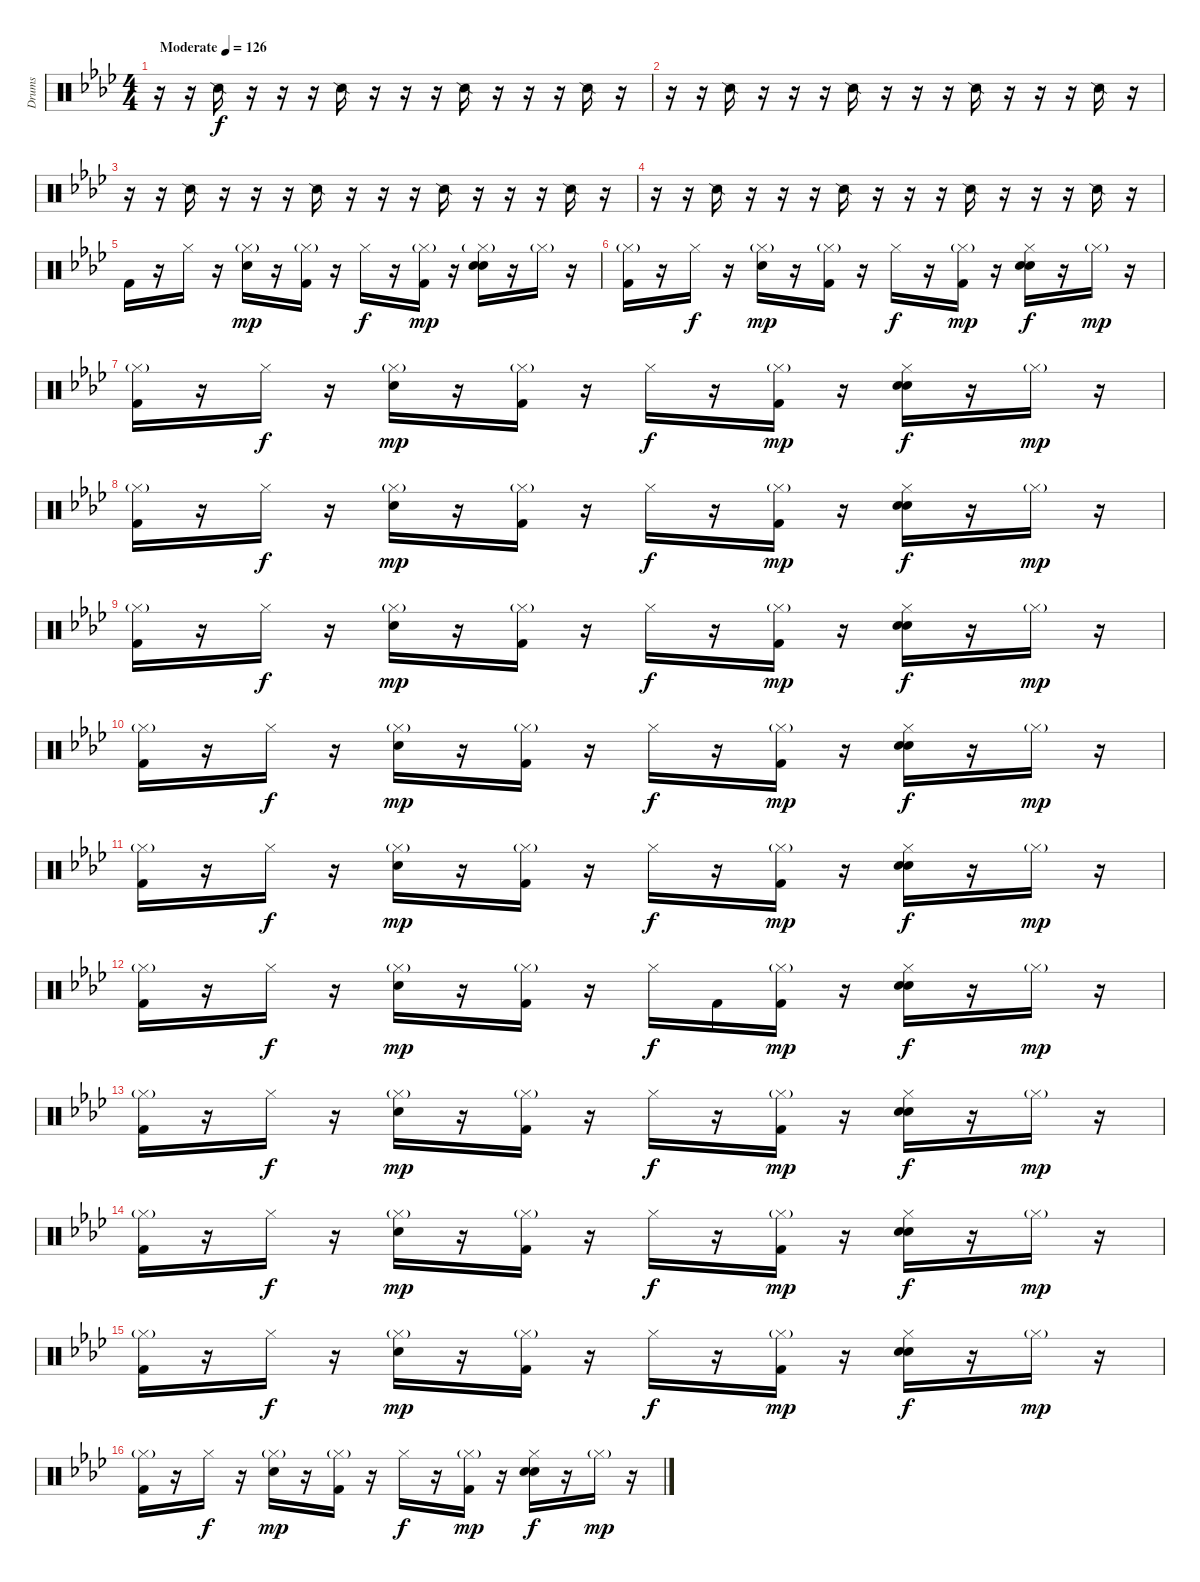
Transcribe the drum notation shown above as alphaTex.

\track ("Drums" "Drums") {instrument percussion}
\staff {score}
\articulation defaults
\ts (4 4)
\tempo (126 "Moderate")
\clef neutral
\ks ab
r.16{dy f} r.16 "Snare (side stick) 2".16 r.16 r.16 r.16 "Snare (side stick) 2".16 r.16 r.16 r.16 "Snare (side stick) 2".16 r.16 r.16 r.16 "Snare (side stick) 2".16 r.16 |
r.16 r.16 "Snare (side stick) 2".16 r.16 r.16 r.16 "Snare (side stick) 2".16 r.16 r.16 r.16 "Snare (side stick) 2".16 r.16 r.16 r.16 "Snare (side stick) 2".16 r.16 |
r.16 r.16 "Snare (side stick) 2".16 r.16 r.16 r.16 "Snare (side stick) 2".16 r.16 r.16 r.16 "Snare (side stick) 2".16 r.16 r.16 r.16 "Snare (side stick) 2".16 r.16 |
r.16 r.16 "Snare (side stick) 2".16 r.16 r.16 r.16 "Snare (side stick) 2".16 r.16 r.16 r.16 "Snare (side stick) 2".16 r.16 r.16 r.16 "Snare (side stick) 2".16 r.16 |
"Kick (hit) 2".16 r.16 "Hi-Hat (closed)".16 r.16 ("Hi-Hat (closed)"{g} "Snare (hit) 2").16{dy mp} r.16 ("Hi-Hat (closed)"{g} "Kick (hit) 2").16 r.16 "Hi-Hat (closed)".16{dy f} r.16 ("Hi-Hat (closed)"{g} "Kick (hit) 2").16{dy mp} r.16 ("Hi-Hat (closed)"{g} "Hand Clap (hit)" "Snare (hit) 2").16 r.16 "Hi-Hat (closed)"{g}.16 r.16 |
("Hi-Hat (closed)"{g} "Kick (hit) 2").16 r.16 "Hi-Hat (closed)".16{dy f} r.16 ("Hi-Hat (closed)"{g} "Snare (hit) 2").16{dy mp} r.16 ("Hi-Hat (closed)"{g} "Kick (hit) 2").16 r.16 "Hi-Hat (closed)".16{dy f} r.16 ("Hi-Hat (closed)"{g} "Kick (hit) 2").16{dy mp} r.16 ("Hi-Hat (closed)" "Hand Clap (hit)" "Snare (hit) 2").16{dy f} r.16 "Hi-Hat (closed)"{g}.16{dy mp} r.16 |
("Hi-Hat (closed)"{g} "Kick (hit) 2").16 r.16 "Hi-Hat (closed)".16{dy f} r.16 ("Hi-Hat (closed)"{g} "Snare (hit) 2").16{dy mp} r.16 ("Hi-Hat (closed)"{g} "Kick (hit) 2").16 r.16 "Hi-Hat (closed)".16{dy f} r.16 ("Hi-Hat (closed)"{g} "Kick (hit) 2").16{dy mp} r.16 ("Hi-Hat (closed)" "Hand Clap (hit)" "Snare (hit) 2").16{dy f} r.16 "Hi-Hat (closed)"{g}.16{dy mp} r.16 |
("Hi-Hat (closed)"{g} "Kick (hit) 2").16 r.16 "Hi-Hat (closed)".16{dy f} r.16 ("Hi-Hat (closed)"{g} "Snare (hit) 2").16{dy mp} r.16 ("Hi-Hat (closed)"{g} "Kick (hit) 2").16 r.16 "Hi-Hat (closed)".16{dy f} r.16 ("Hi-Hat (closed)"{g} "Kick (hit) 2").16{dy mp} r.16 ("Hi-Hat (closed)" "Hand Clap (hit)" "Snare (hit) 2").16{dy f} r.16 "Hi-Hat (closed)"{g}.16{dy mp} r.16 |
("Hi-Hat (closed)"{g} "Kick (hit) 2").16 r.16 "Hi-Hat (closed)".16{dy f} r.16 ("Hi-Hat (closed)"{g} "Snare (hit) 2").16{dy mp} r.16 ("Hi-Hat (closed)"{g} "Kick (hit) 2").16 r.16 "Hi-Hat (closed)".16{dy f} r.16 ("Hi-Hat (closed)"{g} "Kick (hit) 2").16{dy mp} r.16 ("Hi-Hat (closed)" "Hand Clap (hit)" "Snare (hit) 2").16{dy f} r.16 "Hi-Hat (closed)"{g}.16{dy mp} r.16 |
("Hi-Hat (closed)"{g} "Kick (hit) 2").16 r.16 "Hi-Hat (closed)".16{dy f} r.16 ("Hi-Hat (closed)"{g} "Snare (hit) 2").16{dy mp} r.16 ("Hi-Hat (closed)"{g} "Kick (hit) 2").16 r.16 "Hi-Hat (closed)".16{dy f} r.16 ("Hi-Hat (closed)"{g} "Kick (hit) 2").16{dy mp} r.16 ("Hi-Hat (closed)" "Hand Clap (hit)" "Snare (hit) 2").16{dy f} r.16 "Hi-Hat (closed)"{g}.16{dy mp} r.16 |
("Hi-Hat (closed)"{g} "Kick (hit) 2").16 r.16 "Hi-Hat (closed)".16{dy f} r.16 ("Hi-Hat (closed)"{g} "Snare (hit) 2").16{dy mp} r.16 ("Hi-Hat (closed)"{g} "Kick (hit) 2").16 r.16 "Hi-Hat (closed)".16{dy f} r.16 ("Hi-Hat (closed)"{g} "Kick (hit) 2").16{dy mp} r.16 ("Hi-Hat (closed)" "Hand Clap (hit)" "Snare (hit) 2").16{dy f} r.16 "Hi-Hat (closed)"{g}.16{dy mp} r.16 |
("Hi-Hat (closed)"{g} "Kick (hit) 2").16 r.16 "Hi-Hat (closed)".16{dy f} r.16 ("Hi-Hat (closed)"{g} "Snare (hit) 2").16{dy mp} r.16 ("Hi-Hat (closed)"{g} "Kick (hit) 2").16 r.16 "Hi-Hat (closed)".16{dy f} "Kick (hit) 2".16 ("Hi-Hat (closed)"{g} "Kick (hit) 2").16{dy mp} r.16 ("Hi-Hat (closed)" "Hand Clap (hit)" "Snare (hit) 2").16{dy f} r.16 "Hi-Hat (closed)"{g}.16{dy mp} r.16 |
("Hi-Hat (closed)"{g} "Kick (hit) 2").16 r.16 "Hi-Hat (closed)".16{dy f} r.16 ("Hi-Hat (closed)"{g} "Snare (hit) 2").16{dy mp} r.16 ("Hi-Hat (closed)"{g} "Kick (hit) 2").16 r.16 "Hi-Hat (closed)".16{dy f} r.16 ("Hi-Hat (closed)"{g} "Kick (hit) 2").16{dy mp} r.16 ("Hi-Hat (closed)" "Hand Clap (hit)" "Snare (hit) 2").16{dy f} r.16 "Hi-Hat (closed)"{g}.16{dy mp} r.16 |
("Hi-Hat (closed)"{g} "Kick (hit) 2").16 r.16 "Hi-Hat (closed)".16{dy f} r.16 ("Hi-Hat (closed)"{g} "Snare (hit) 2").16{dy mp} r.16 ("Hi-Hat (closed)"{g} "Kick (hit) 2").16 r.16 "Hi-Hat (closed)".16{dy f} r.16 ("Hi-Hat (closed)"{g} "Kick (hit) 2").16{dy mp} r.16 ("Hi-Hat (closed)" "Hand Clap (hit)" "Snare (hit) 2").16{dy f} r.16 "Hi-Hat (closed)"{g}.16{dy mp} r.16 |
("Hi-Hat (closed)"{g} "Kick (hit) 2").16 r.16 "Hi-Hat (closed)".16{dy f} r.16 ("Hi-Hat (closed)"{g} "Snare (hit) 2").16{dy mp} r.16 ("Hi-Hat (closed)"{g} "Kick (hit) 2").16 r.16 "Hi-Hat (closed)".16{dy f} r.16 ("Hi-Hat (closed)"{g} "Kick (hit) 2").16{dy mp} r.16 ("Hi-Hat (closed)" "Hand Clap (hit)" "Snare (hit) 2").16{dy f} r.16 "Hi-Hat (closed)"{g}.16{dy mp} r.16 |
("Hi-Hat (closed)"{g} "Kick (hit) 2").16 r.16 "Hi-Hat (closed)".16{dy f} r.16 ("Hi-Hat (closed)"{g} "Snare (hit) 2").16{dy mp} r.16 ("Hi-Hat (closed)"{g} "Kick (hit) 2").16 r.16 "Hi-Hat (closed)".16{dy f} r.16 ("Hi-Hat (closed)"{g} "Kick (hit) 2").16{dy mp} r.16 ("Hi-Hat (closed)" "Hand Clap (hit)" "Snare (hit) 2").16{dy f} r.16 "Hi-Hat (closed)"{g}.16{dy mp} r.16
